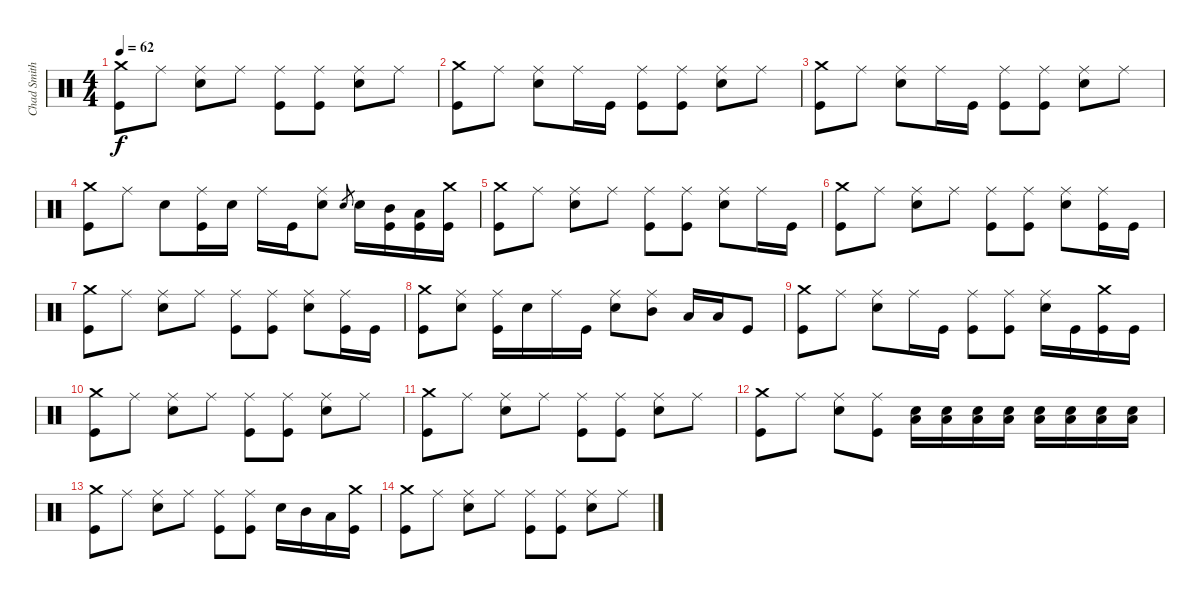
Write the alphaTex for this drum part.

\track ("Chad Smith" "Chad Smith") {instrument percussion}
\staff {score}
\articulation defaults
\ts (4 4)
\tempo 62
\clef neutral
\ks c
("Crash medium (hit)" "Kick (hit)").8{dy f} "Ride (middle)".8 ("Ride (middle)" "Electric Snare (hit)").8 "Ride (middle)".8 ("Ride (middle)" "Kick (hit)").8 ("Ride (middle)" "Kick (hit)").8 ("Ride (middle)" "Electric Snare (hit)").8 "Ride (middle)".8 |
("Crash medium (hit)" "Kick (hit)").8 "Ride (middle)".8 ("Ride (middle)" "Electric Snare (hit)").8 "Ride (middle)".16 "Kick (hit)".16 ("Ride (middle)" "Kick (hit)").8 ("Ride (middle)" "Kick (hit)").8 ("Ride (middle)" "Electric Snare (hit)").8 "Ride (middle)".8 |
("Crash medium (hit)" "Kick (hit)").8 "Ride (middle)".8 ("Ride (middle)" "Electric Snare (hit)").8 "Ride (middle)".16 "Kick (hit)".16 ("Ride (middle)" "Kick (hit)").8 ("Ride (middle)" "Kick (hit)").8 ("Ride (middle)" "Electric Snare (hit)").8 "Ride (middle)".8 |
("Crash medium (hit)" "Kick (hit)").8 "Ride (middle)".8 "Electric Snare (hit)".8 ("Ride (middle)" "Kick (hit)").16 "Electric Snare (hit)".16 "Ride (middle)".16 "Kick (hit)".16 ("Ride (middle)" "Electric Snare (hit)").8 "Electric Snare (hit)".8{gr} "Electric Snare (hit)".16 ("Mid Tom (hit)" "Kick (hit)").16 ("Low Tom (hit)" "Kick (hit)").16 ("Crash medium (hit)" "Kick (hit)").16 |
("Crash medium (hit)" "Kick (hit)").8 "Ride (middle)".8 ("Ride (middle)" "Electric Snare (hit)").8 "Ride (middle)".8 ("Ride (middle)" "Kick (hit)").8 ("Ride (middle)" "Kick (hit)").8 ("Ride (middle)" "Electric Snare (hit)").8 "Ride (middle)".16 "Kick (hit)".16 |
("Crash medium (hit)" "Kick (hit)").8 "Ride (middle)".8 ("Ride (middle)" "Electric Snare (hit)").8 "Ride (middle)".8 ("Ride (middle)" "Kick (hit)").8 ("Ride (middle)" "Kick (hit)").8 ("Ride (middle)" "Electric Snare (hit)").8 ("Ride (middle)" "Kick (hit)").16 "Kick (hit)".16 |
("Crash medium (hit)" "Kick (hit)").8 "Ride (middle)".8 ("Ride (middle)" "Electric Snare (hit)").8 "Ride (middle)".8 ("Ride (middle)" "Kick (hit)").8 ("Ride (middle)" "Kick (hit)").8 ("Ride (middle)" "Electric Snare (hit)").8 ("Ride (middle)" "Kick (hit)").16 "Kick (hit)".16 |
("Crash medium (hit)" "Kick (hit)").8 ("Ride (middle)" "Electric Snare (hit)").8 ("Ride (middle)" "Kick (hit)").16 "Electric Snare (hit)".16 "Ride (middle)".16 "Kick (hit)".16 ("Ride (middle)" "Electric Snare (hit)").8 ("Ride (middle)" "Mid Tom (hit)").8 "Low Tom (hit)".16 "Low Tom (hit)".16 "Kick (hit)".8 |
("Crash medium (hit)" "Kick (hit)").8 "Ride (middle)".8 ("Ride (middle)" "Electric Snare (hit)").8 "Ride (middle)".16 "Kick (hit)".16 ("Ride (middle)" "Kick (hit)").8 ("Ride (middle)" "Kick (hit)").8 ("Ride (middle)" "Electric Snare (hit)").16 "Kick (hit)".16 ("Crash medium (hit)" "Kick (hit)").16 "Kick (hit)".16 |
("Crash medium (hit)" "Kick (hit)").8{volume 9} "Ride (middle)".8 ("Ride (middle)" "Electric Snare (hit)").8 "Ride (middle)".8 ("Ride (middle)" "Kick (hit)").8 ("Ride (middle)" "Kick (hit)").8 ("Ride (middle)" "Electric Snare (hit)").8 "Ride (middle)".8 |
("Crash medium (hit)" "Kick (hit)").8 "Ride (middle)".8 ("Ride (middle)" "Electric Snare (hit)").8 "Ride (middle)".8 ("Ride (middle)" "Kick (hit)").8 ("Ride (middle)" "Kick (hit)").8 ("Ride (middle)" "Electric Snare (hit)").8 "Ride (middle)".8 |
("Crash medium (hit)" "Kick (hit)").8{volume 5} "Ride (middle)".8 ("Ride (middle)" "Electric Snare (hit)").8 ("Ride (middle)" "Kick (hit)").8 ("Electric Snare (hit)" "Low Tom (hit)").16 ("Electric Snare (hit)" "Low Tom (hit)").16 ("Electric Snare (hit)" "Low Tom (hit)").16 ("Electric Snare (hit)" "Low Tom (hit)").16 ("Electric Snare (hit)" "Low Tom (hit)").16 ("Electric Snare (hit)" "Low Tom (hit)").16 ("Electric Snare (hit)" "Low Tom (hit)").16 ("Electric Snare (hit)" "Low Tom (hit)").16 |
("Crash medium (hit)" "Kick (hit)").8 "Ride (middle)".8 ("Ride (middle)" "Electric Snare (hit)").8 "Ride (middle)".8 ("Ride (middle)" "Kick (hit)").8 ("Ride (middle)" "Kick (hit)").8 "Electric Snare (hit)".16 "Mid Tom (hit)".16 "Low Tom (hit)".16 ("Crash medium (hit)" "Kick (hit)").16 |
("Crash medium (hit)" "Kick (hit)").8{volume 1} "Ride (middle)".8 ("Ride (middle)" "Electric Snare (hit)").8 "Ride (middle)".8 ("Ride (middle)" "Kick (hit)").8 ("Ride (middle)" "Kick (hit)").8 ("Ride (middle)" "Electric Snare (hit)").8 "Ride (middle)".8
